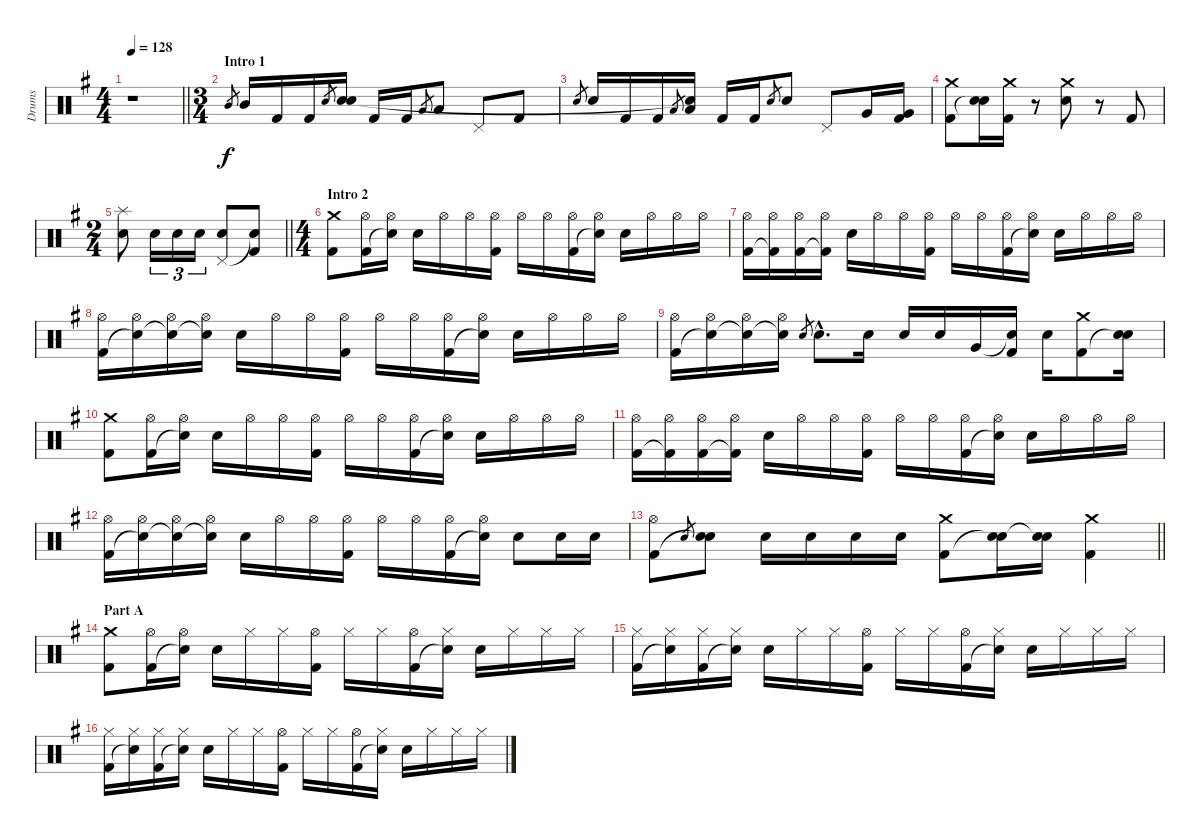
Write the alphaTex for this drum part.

\track ("Drums" "Drums") {instrument percussion}
\staff {score}
\articulation defaults
\ts (4 4)
\tempo 128
\clef neutral
\barLineRight lightlight
\ks g
r.1{dy f} |
\ts (3 4)
\section ("" "Intro 1")
"Mid Tom (hit)".8{gr} "Mid Tom (hit)".16 "Kick (hit) 2".16 "Kick (hit) 2".16 "Electric Snare (hit)".8{gr} ("Electric Snare (hit)" "Snare (hit)").16 "Kick (hit) 2".16 "Kick (hit) 2".16 "Low Tom (hit)".8{gr} "Low Tom (hit)".8 "Pedal Hi-Hat (hit)".8 "Kick (hit) 2".8 |
"Electric Snare (hit)".8{gr} "Electric Snare (hit)".16 "Kick (hit) 2".16 "Kick (hit) 2".16 "Low Tom (hit)".8{gr} ("Low Tom (hit)" "Snare (hit)"{t}).16 "Kick (hit) 2".16 "Kick (hit) 2".16 "Electric Snare (hit)".8{gr} "Electric Snare (hit)".8 "Pedal Hi-Hat (hit)".8 "Very Low Tom (hit)".16 ("Very Low Tom (hit)" "Kick (hit) 2").16 |
("Crash medium (hit)" "Kick (hit) 2").8 ("Electric Snare (hit)" "Snare (hit)"{t}).16 ("Crash medium (hit)" "Kick (hit) 2").16 r.8 ("Crash medium (hit)" "Electric Snare (hit)").8 r.8 "Kick (hit) 2".8 |
\ts (2 4)
\barLineRight lightlight
("Splash (hit)" "Electric Snare (hit)").8 "Electric Snare (hit)".16{tu (3 2)} "Electric Snare (hit)".16{tu (3 2)} "Electric Snare (hit)".16{tu (3 2)} ("Pedal Hi-Hat (hit)" "Electric Snare (hit)").8 ("Snare (hit)"{t} "Kick (hit) 2").8 |
\ts (4 4)
\section ("" "Intro 2")
("Crash medium (hit)" "Kick (hit) 2").8 ("Hi-Hat (open)" "Kick (hit) 2").16 ("Hi-Hat (open)" "Snare (hit)"{t}).16 "Electric Snare (hit)".16 "Hi-Hat (open)".16 "Hi-Hat (open)".16 ("Hi-Hat (open)" "Kick (hit) 2").16 "Hi-Hat (open)".16 "Hi-Hat (open)".16 ("Hi-Hat (open)" "Kick (hit) 2").16 ("Hi-Hat (open)" "Snare (hit)"{t}).16 "Electric Snare (hit)".16 "Hi-Hat (open)".16 "Hi-Hat (open)".16 "Hi-Hat (open)".16 |
("Hi-Hat (open)" "Kick (hit) 2").16 ("Hi-Hat (open)" "Kick (hit) 2"{t}).16 ("Hi-Hat (open)" "Kick (hit) 2").16 ("Hi-Hat (open)" "Kick (hit) 2"{t}).16 "Electric Snare (hit)".16 "Hi-Hat (open)".16 "Hi-Hat (open)".16 ("Hi-Hat (open)" "Kick (hit) 2").16 "Hi-Hat (open)".16 "Hi-Hat (open)".16 ("Hi-Hat (open)" "Kick (hit) 2").16 ("Hi-Hat (open)" "Snare (hit)"{t}).16 "Electric Snare (hit)".16 "Hi-Hat (open)".16 "Hi-Hat (open)".16 "Hi-Hat (open)".16 |
("Hi-Hat (open)" "Kick (hit) 2").16 ("Hi-Hat (open)" "Snare (hit)"{t}).16 ("Hi-Hat (open)" "Snare (hit)"{t}).16 ("Hi-Hat (open)" "Snare (hit)"{t}).16 "Electric Snare (hit)".16 "Hi-Hat (open)".16 "Hi-Hat (open)".16 ("Hi-Hat (open)" "Kick (hit) 2").16 "Hi-Hat (open)".16 "Hi-Hat (open)".16 ("Hi-Hat (open)" "Kick (hit) 2").16 ("Hi-Hat (open)" "Snare (hit)"{t}).16 "Electric Snare (hit)".16 "Hi-Hat (open)".16 "Hi-Hat (open)".16 "Hi-Hat (open)".16 |
("Hi-Hat (open)" "Kick (hit) 2").16 ("Hi-Hat (open)" "Snare (hit)"{t}).16 ("Hi-Hat (open)" "Snare (hit)"{t}).16 ("Hi-Hat (open)" "Snare (hit)"{t}).16 "Electric Snare (hit)".8{gr} "Electric Snare (hit)"{hac}.8{d} "Electric Snare (hit)".16 "Electric Snare (hit)".16 "Electric Snare (hit)".16 "Very Low Tom (hit)".16 ("Snare (hit)"{t} "Kick (hit) 2").16 "Electric Snare (hit)".16 ("Crash medium (hit)" "Kick (hit) 2").8 ("Electric Snare (hit)" "Snare (hit)"{t}).16 |
("Crash medium (hit)" "Kick (hit) 2").8 ("Hi-Hat (open)" "Kick (hit) 2").16 ("Hi-Hat (open)" "Snare (hit)"{t}).16 "Electric Snare (hit)".16 "Hi-Hat (open)".16 "Hi-Hat (open)".16 ("Hi-Hat (open)" "Kick (hit) 2").16 "Hi-Hat (open)".16 "Hi-Hat (open)".16 ("Hi-Hat (open)" "Kick (hit) 2").16 ("Hi-Hat (open)" "Snare (hit)"{t}).16 "Electric Snare (hit)".16 "Hi-Hat (open)".16 "Hi-Hat (open)".16 "Hi-Hat (open)".16 |
("Hi-Hat (open)" "Kick (hit) 2").16 ("Hi-Hat (open)" "Kick (hit) 2"{t}).16 ("Hi-Hat (open)" "Kick (hit) 2").16 ("Hi-Hat (open)" "Kick (hit) 2"{t}).16 "Electric Snare (hit)".16 "Hi-Hat (open)".16 "Hi-Hat (open)".16 ("Hi-Hat (open)" "Kick (hit) 2").16 "Hi-Hat (open)".16 "Hi-Hat (open)".16 ("Hi-Hat (open)" "Kick (hit) 2").16 ("Hi-Hat (open)" "Snare (hit)"{t}).16 "Electric Snare (hit)".16 "Hi-Hat (open)".16 "Hi-Hat (open)".16 "Hi-Hat (open)".16 |
("Hi-Hat (open)" "Kick (hit) 2").16 ("Hi-Hat (open)" "Snare (hit)"{t}).16 ("Hi-Hat (open)" "Snare (hit)"{t}).16 ("Hi-Hat (open)" "Snare (hit)"{t}).16 "Electric Snare (hit)".16 "Hi-Hat (open)".16 "Hi-Hat (open)".16 ("Hi-Hat (open)" "Kick (hit) 2").16 "Hi-Hat (open)".16 "Hi-Hat (open)".16 ("Hi-Hat (open)" "Kick (hit) 2").16 ("Hi-Hat (open)" "Snare (hit)"{t}).16 "Electric Snare (hit)".8 "Electric Snare (hit)".16 "Electric Snare (hit)".16 |
\barLineRight lightlight
("Hi-Hat (open)" "Kick (hit) 2").8 "Electric Snare (hit)".8{gr} ("Electric Snare (hit)" "Snare (hit)"{t}).8 "Electric Snare (hit)".16 "Electric Snare (hit)".16 "Electric Snare (hit)".16 "Electric Snare (hit)".16 ("Crash medium (hit)" "Kick (hit) 2").8 ("Electric Snare (hit)" "Snare (hit)"{t}).16 ("Electric Snare (hit)" "Snare (hit)"{t}).16 ("Crash medium (hit)" "Kick (hit) 2").4 |
\section ("" "Part A")
("Crash medium (hit)" "Kick (hit) 2").8 ("Hi-Hat (open)" "Kick (hit) 2").16 ("Hi-Hat (open)" "Snare (hit)"{t}).16 "Electric Snare (hit)".16 "Hi-Hat (closed)".16 "Hi-Hat (closed)".16 ("Hi-Hat (open)" "Kick (hit) 2").16 "Hi-Hat (closed)".16 "Hi-Hat (closed)".16 ("Hi-Hat (open)" "Kick (hit) 2").16 ("Hi-Hat (closed)" "Snare (hit)"{t}).16 "Electric Snare (hit)".16 "Hi-Hat (closed)".16 "Hi-Hat (closed)".16 "Hi-Hat (closed)".16 |
("Hi-Hat (closed)" "Kick (hit) 2").16 ("Hi-Hat (closed)" "Snare (hit)"{t}).16 ("Hi-Hat (closed)" "Kick (hit) 2").16 ("Hi-Hat (closed)" "Snare (hit)"{t}).16 "Electric Snare (hit)".16 "Hi-Hat (closed)".16 "Hi-Hat (closed)".16 ("Hi-Hat (open)" "Kick (hit) 2").16 "Hi-Hat (closed)".16 "Hi-Hat (closed)".16 ("Hi-Hat (open)" "Kick (hit) 2").16 ("Hi-Hat (closed)" "Snare (hit)"{t}).16 "Electric Snare (hit)".16 "Hi-Hat (closed)".16 "Hi-Hat (closed)".16 "Hi-Hat (closed)".16 |
("Hi-Hat (closed)" "Kick (hit) 2").16 ("Hi-Hat (closed)" "Snare (hit)"{t}).16 ("Hi-Hat (closed)" "Kick (hit) 2").16 ("Hi-Hat (closed)" "Snare (hit)"{t}).16 "Electric Snare (hit)".16 "Hi-Hat (closed)".16 "Hi-Hat (closed)".16 ("Hi-Hat (open)" "Kick (hit) 2").16 "Hi-Hat (closed)".16 "Hi-Hat (closed)".16 ("Hi-Hat (open)" "Kick (hit) 2").16 ("Hi-Hat (closed)" "Snare (hit)"{t}).16 "Electric Snare (hit)".16 "Hi-Hat (closed)".16 "Hi-Hat (closed)".16 "Hi-Hat (closed)".16
